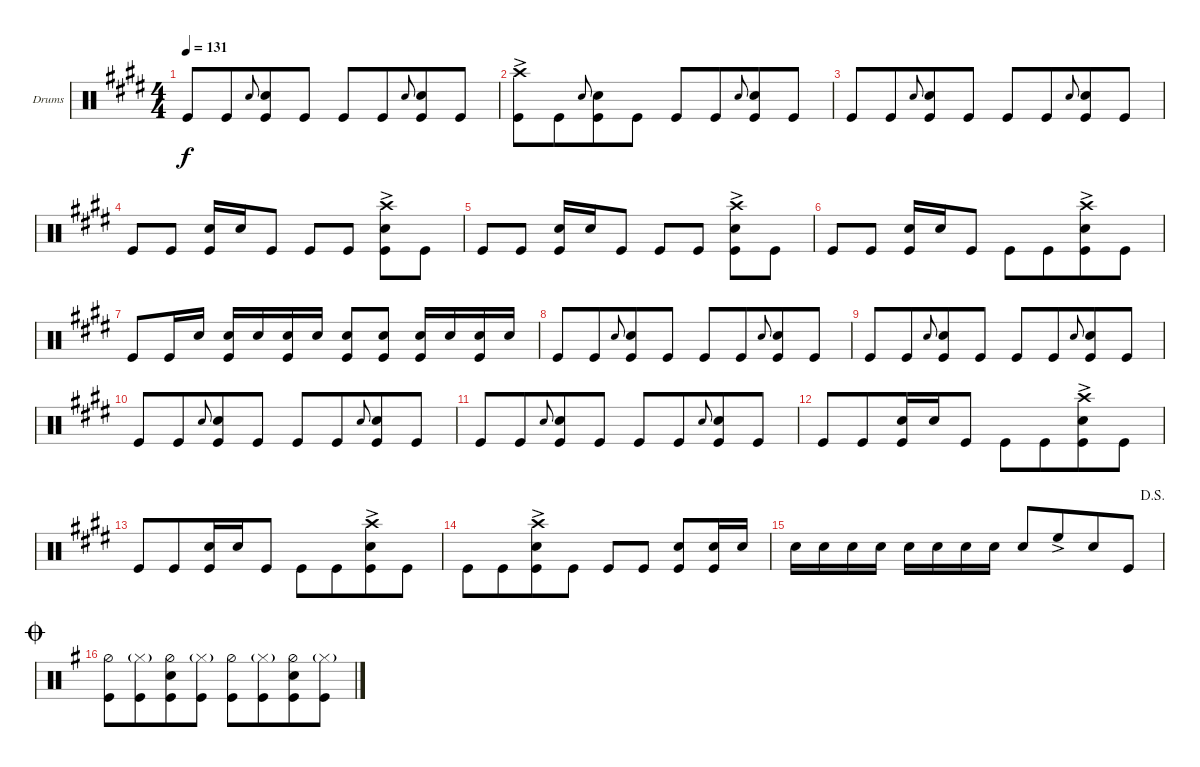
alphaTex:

\defaultSystemsLayout 4
\bracketExtendMode groupsimilarinstruments
\firstSystemTrackNameOrientation horizontal
\otherSystemsTrackNameOrientation horizontal
\track ("Drumkit" "Drums") {instrument percussion}
\staff {score}
\articulation defaults
\ts (4 4)
\tempo 131
\clef neutral
\ks c#minor "Kick (hit)".8{dy f} "Kick (hit)".8{beam merge} "Snare (hit) 2".8{gr onbeat}
("Kick (hit)" "Snare (hit) 2").8 "Kick (hit)".8 "Kick (hit)".8 "Kick (hit)".8{beam merge} "Snare (hit) 2".8{gr onbeat} ("Kick (hit)" "Snare (hit) 2").8 "Kick (hit)".8 |
("Kick (hit)" "Crash high (hit)"{ac}).8 "Kick (hit)".8{beam merge} "Snare (hit) 2".8{gr onbeat} ("Kick (hit)" "Snare (hit) 2").8 "Kick (hit)".8 "Kick (hit)".8 "Kick (hit)".8{beam merge} "Snare (hit) 2".8{gr onbeat} ("Kick (hit)" "Snare (hit) 2").8 "Kick (hit)".8 |
"Kick (hit)".8 "Kick (hit)".8{beam merge} "Snare (hit) 2".8{gr onbeat} ("Kick (hit)" "Snare (hit) 2").8 "Kick (hit)".8 "Kick (hit)".8 "Kick (hit)".8{beam merge} "Snare (hit) 2".8{gr onbeat} ("Kick (hit)" "Snare (hit) 2").8 "Kick (hit)".8 |
"Kick (hit)".8 "Kick (hit)".8 ("Kick (hit)" "Snare (hit) 2").16 "Snare (hit) 2".16 "Kick (hit)".8 "Kick (hit)".8 "Kick (hit)".8 ("Kick (hit)" "Snare (hit) 2" "Crash high (hit)"{ac}).8 "Kick (hit)".8 |
"Kick (hit)".8 "Kick (hit)".8 ("Kick (hit)" "Snare (hit) 2").16 "Snare (hit) 2".16 "Kick (hit)".8 "Kick (hit)".8 "Kick (hit)".8 ("Kick (hit)" "Snare (hit) 2" "Crash high (hit)"{ac}).8 "Kick (hit)".8 |
"Kick (hit)".8 "Kick (hit)".8 ("Kick (hit)" "Snare (hit) 2").16 "Snare (hit) 2".16 "Kick (hit)".8 "Kick (hit)".8 "Kick (hit)".8{beam merge} ("Kick (hit)" "Snare (hit) 2" "Crash high (hit)"{ac}).8 "Kick (hit)".8 |
"Kick (hit)".8 "Kick (hit)".16 "Snare (hit) 2".16 ("Snare (hit) 2" "Kick (hit)").16 "Snare (hit) 2".16 ("Snare (hit) 2" "Kick (hit)").16 "Snare (hit) 2".16 ("Snare (hit) 2" "Kick (hit)").8 ("Snare (hit) 2" "Kick (hit)").8 ("Snare (hit) 2" "Kick (hit)").16 "Snare (hit) 2".16 ("Snare (hit) 2" "Kick (hit)").16 "Snare (hit) 2".16 |
"Kick (hit)".8 "Kick (hit)".8{beam merge} "Snare (hit) 2".8{gr onbeat} ("Kick (hit)" "Snare (hit) 2").8 "Kick (hit)".8 "Kick (hit)".8 "Kick (hit)".8{beam merge} "Snare (hit) 2".8{gr onbeat} ("Kick (hit)" "Snare (hit) 2").8 "Kick (hit)".8 |
"Kick (hit)".8 "Kick (hit)".8{beam merge} "Snare (hit) 2".8{gr onbeat} ("Kick (hit)" "Snare (hit) 2").8 "Kick (hit)".8 "Kick (hit)".8 "Kick (hit)".8{beam merge} "Snare (hit) 2".8{gr onbeat} ("Kick (hit)" "Snare (hit) 2").8 "Kick (hit)".8 |
"Kick (hit)".8 "Kick (hit)".8{beam merge} "Snare (hit) 2".8{gr onbeat} ("Kick (hit)" "Snare (hit) 2").8 "Kick (hit)".8 "Kick (hit)".8 "Kick (hit)".8{beam merge} "Snare (hit) 2".8{gr onbeat} ("Kick (hit)" "Snare (hit) 2").8 "Kick (hit)".8 |
"Kick (hit)".8 "Kick (hit)".8{beam merge} "Snare (hit) 2".8{gr onbeat} ("Kick (hit)" "Snare (hit) 2").8 "Kick (hit)".8 "Kick (hit)".8 "Kick (hit)".8{beam merge} "Snare (hit) 2".8{gr onbeat} ("Kick (hit)" "Snare (hit) 2").8 "Kick (hit)".8 |
"Kick (hit)".8 "Kick (hit)".8{beam merge} ("Kick (hit)" "Snare (hit) 2").16 "Snare (hit) 2".16 "Kick (hit)".8 "Kick (hit)".8 "Kick (hit)".8{beam merge} ("Kick (hit)" "Snare (hit) 2" "Crash high (hit)"{ac}).8 "Kick (hit)".8 |
"Kick (hit)".8 "Kick (hit)".8{beam merge} ("Kick (hit)" "Snare (hit) 2").16 "Snare (hit) 2".16 "Kick (hit)".8 "Kick (hit)".8 "Kick (hit)".8{beam merge} ("Kick (hit)" "Snare (hit) 2" "Crash high (hit)"{ac}).8 "Kick (hit)".8 |
"Kick (hit)".8 "Kick (hit)".8{beam merge} ("Kick (hit)" "Snare (hit) 2" "Crash high (hit)"{ac}).8 "Kick (hit)".8 "Kick (hit)".8 "Kick (hit)".8 ("Kick (hit)" "Snare (hit) 2").8 ("Snare (hit) 2" "Kick (hit)").16 "Snare (hit) 2".16 |
\jump dalsegno "Snare (hit) 2".16 "Snare (hit) 2".16 "Snare (hit) 2".16 "Snare (hit) 2".16 "Snare (hit) 2".16 "Snare (hit) 2".16 "Snare (hit) 2".16 "Snare (hit) 2".16 "Snare (hit) 2".8 "High Floor Tom (hit)"{ac}.8{beam merge} "Snare (hit) 2".8 "Kick (hit)".8
|
\jump coda
\ks eminor
("Kick (hit)" "Hi-Hat (half)").8 ("Kick (hit)" "Hi-Hat (closed)"{g}).8{beam merge} ("Kick (hit)" "Hi-Hat (half)" "Snare (hit) 2").8 ("Kick (hit)" "Hi-Hat (closed)"{g}).8 ("Kick (hit)" "Hi-Hat (half)").8 ("Kick (hit)" "Hi-Hat (closed)"{g}).8{beam merge} ("Kick (hit)" "Hi-Hat (half)" "Snare (hit) 2").8 ("Kick (hit)" "Hi-Hat (closed)"{g}).8
